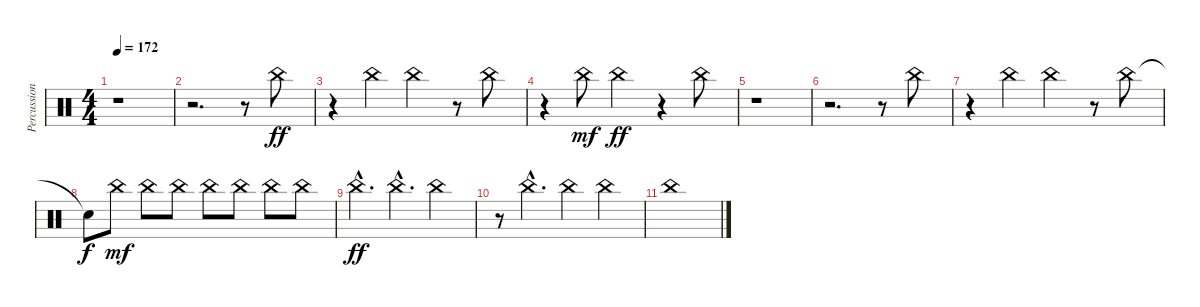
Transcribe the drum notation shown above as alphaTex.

\track ("Percussion / Drum Fills" "Percussion") {instrument percussion}
\staff {score}
\articulation defaults
\ts (4 4)
\tempo 172
\clef neutral
\ks c
r.1{dy ff} |
r.2{d} r.8 "China (hit)".8 |
r.4 "China (hit)".4 "China (hit)".4 r.8 "China (hit)".8 |
r.4 "China (hit)".8{dy mf} "China (hit)".4{dy ff} r.4 "China (hit)".8 |
r.1 |
r.2{d} r.8 "China (hit)".8 |
r.4 "China (hit)".4 "China (hit)".4 r.8 "China (hit)".8 |
"Snare (hit)"{t}.8{dy f} "China (hit)".8{dy mf} "China (hit)".8 "China (hit)".8 "China (hit)".8 "China (hit)".8 "China (hit)".8 "China (hit)".8 |
"China (hit)"{hac}.4{d dy ff} "China (hit)"{hac}.4{d} "China (hit)".4 |
r.8 "China (hit)"{hac}.4{d} "China (hit)".4 "China (hit)".4 |
"China (hit)".1
